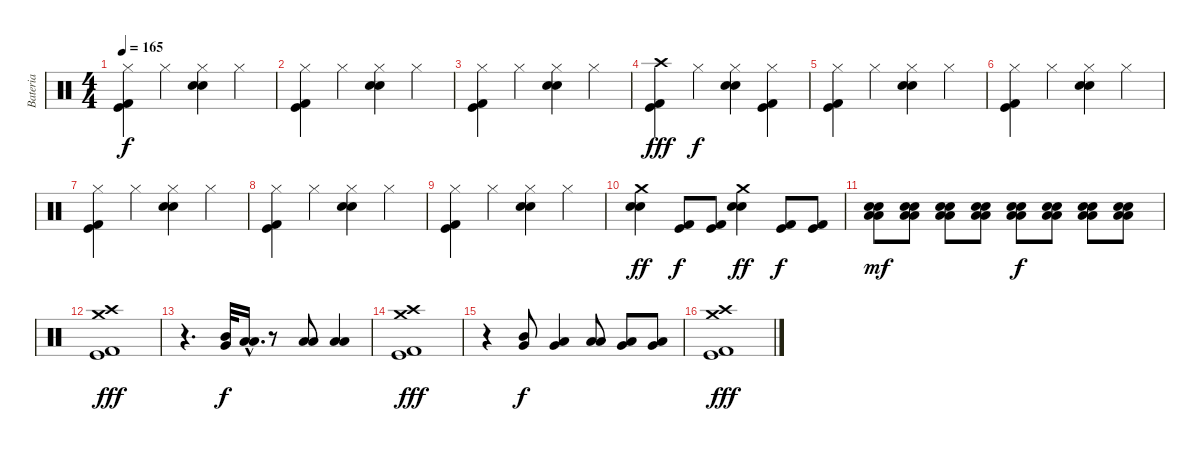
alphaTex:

\track ("Bateria" "Bateria") {instrument percussion}
\staff {score}
\articulation defaults
\ts (4 4)
\tempo 165
\clef neutral
\ks c
("Hi-Hat (closed)" "Kick (hit) 2" "Kick (hit)").4{dy f} "Hi-Hat (closed)".4 ("Hi-Hat (closed)" "Electric Snare (hit)" "Snare (hit) 2").4 "Hi-Hat (closed)".4 |
("Hi-Hat (closed)" "Kick (hit) 2" "Kick (hit)").4 "Hi-Hat (closed)".4 ("Hi-Hat (closed)" "Electric Snare (hit)" "Snare (hit) 2").4 "Hi-Hat (closed)".4 |
("Hi-Hat (closed)" "Kick (hit) 2" "Kick (hit)").4 "Hi-Hat (closed)".4 ("Hi-Hat (closed)" "Electric Snare (hit)" "Snare (hit) 2").4 "Hi-Hat (closed)".4 |
("Crash high (hit)" "Kick (hit) 2" "Kick (hit)").4{dy fff} "Hi-Hat (closed)".4{dy f} ("Hi-Hat (closed)" "Electric Snare (hit)" "Snare (hit) 2").4 ("Hi-Hat (closed)" "Kick (hit) 2" "Kick (hit)").4 |
("Hi-Hat (closed)" "Kick (hit) 2" "Kick (hit)").4 "Hi-Hat (closed)".4 ("Hi-Hat (closed)" "Electric Snare (hit)" "Snare (hit) 2").4 "Hi-Hat (closed)".4 |
("Hi-Hat (closed)" "Kick (hit) 2" "Kick (hit)").4 "Hi-Hat (closed)".4 ("Hi-Hat (closed)" "Electric Snare (hit)" "Snare (hit) 2").4 "Hi-Hat (closed)".4 |
("Hi-Hat (closed)" "Kick (hit) 2" "Kick (hit)").4 "Hi-Hat (closed)".4 ("Hi-Hat (closed)" "Electric Snare (hit)" "Snare (hit) 2").4 "Hi-Hat (closed)".4 |
("Hi-Hat (closed)" "Kick (hit) 2" "Kick (hit)").4 "Hi-Hat (closed)".4 ("Hi-Hat (closed)" "Electric Snare (hit)" "Snare (hit) 2").4 "Hi-Hat (closed)".4 |
("Hi-Hat (closed)" "Kick (hit) 2" "Kick (hit)").4 "Hi-Hat (closed)".4 ("Hi-Hat (closed)" "Electric Snare (hit)" "Snare (hit) 2").4 "Hi-Hat (closed)".4 |
("Crash medium (hit)" "Electric Snare (hit)" "Snare (hit) 2").4{dy ff} ("Kick (hit) 2" "Kick (hit)").8{dy f} ("Kick (hit) 2" "Kick (hit)").8 ("Crash medium (hit)" "Electric Snare (hit)" "Snare (hit) 2").4{dy ff} ("Kick (hit) 2" "Kick (hit)").8{dy f} ("Kick (hit) 2" "Kick (hit)").8 |
("Electric Snare (hit)" "Snare (hit) 2" "Low Tom (hit)" "Low Floor Tom (hit)").8{dy mf} ("Electric Snare (hit)" "Snare (hit) 2" "Low Tom (hit)" "Low Floor Tom (hit)").8 ("Electric Snare (hit)" "Snare (hit) 2" "Low Tom (hit)" "Low Floor Tom (hit)").8 ("Electric Snare (hit)" "Snare (hit) 2" "Low Tom (hit)" "Low Floor Tom (hit)").8 ("Electric Snare (hit)" "Snare (hit) 2" "Low Tom (hit)" "Low Floor Tom (hit)").8{dy f} ("Electric Snare (hit)" "Snare (hit) 2" "Low Tom (hit)" "Low Floor Tom (hit)").8 ("Electric Snare (hit)" "Snare (hit) 2" "Low Tom (hit)" "Low Floor Tom (hit)").8 ("Electric Snare (hit)" "Snare (hit) 2" "Low Tom (hit)" "Low Floor Tom (hit)").8 |
("Crash high (hit)" "Crash medium (hit)" "Kick (hit) 2" "Kick (hit)").1{dy fff} |
r.4{d} ("Mid Tom (hit)" "Very Low Tom (hit)").32{dy f} ("Low Tom (hit)"{hac} "Low Floor Tom (hit)"{hac}).16{d} r.8 ("Low Tom (hit)" "Low Floor Tom (hit)").8 ("Low Tom (hit)" "Low Floor Tom (hit)").4 |
("Crash high (hit)" "Crash medium (hit)" "Kick (hit) 2" "Kick (hit)").1{dy fff} |
r.4 ("Mid Tom (hit)" "Very Low Tom (hit)").8{dy f} ("Low Tom (hit)" "Very Low Tom (hit)").4 ("Low Tom (hit)" "Low Floor Tom (hit)").8 ("Very Low Tom (hit)" "Low Floor Tom (hit)").8 ("Very Low Tom (hit)" "Low Floor Tom (hit)").8 |
("Crash high (hit)" "Crash medium (hit)" "Kick (hit) 2" "Kick (hit)").1{dy fff}
